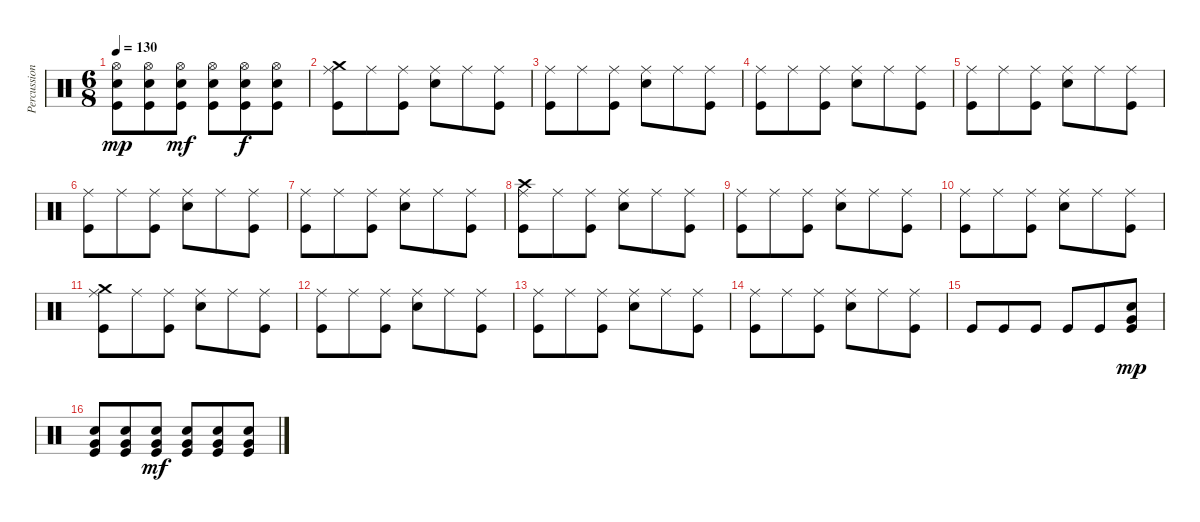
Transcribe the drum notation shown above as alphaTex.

\track ("Percussion" "Percussion") {instrument percussion}
\staff {score}
\articulation defaults
\ts (6 8)
\tempo 130
\clef neutral
\ks c
("Hi-Hat (open)" "Snare (hit) 2" "Kick (hit)").8{dy mp} ("Hi-Hat (open)" "Snare (hit) 2" "Kick (hit)").8 ("Hi-Hat (open)" "Snare (hit) 2" "Kick (hit)").8{dy mf} ("Hi-Hat (open)" "Snare (hit) 2" "Kick (hit)").8 ("Hi-Hat (open)" "Snare (hit) 2" "Kick (hit)").8{dy f} ("Hi-Hat (open)" "Snare (hit) 2" "Kick (hit)").8 |
("Crash medium (hit)" "Ride (middle)" "Kick (hit)").8 "Ride (middle)".8 ("Ride (middle)" "Kick (hit)").8 ("Ride (middle)" "Snare (hit) 2").8 "Ride (middle)".8 ("Ride (middle)" "Kick (hit)").8 |
("Ride (middle)" "Kick (hit)").8 "Ride (middle)".8 ("Ride (middle)" "Kick (hit)").8 ("Ride (middle)" "Snare (hit) 2").8 "Ride (middle)".8 ("Ride (middle)" "Kick (hit)").8 |
("Ride (middle)" "Kick (hit)").8 "Ride (middle)".8 ("Ride (middle)" "Kick (hit)").8 ("Ride (middle)" "Snare (hit) 2").8 "Ride (middle)".8 ("Ride (middle)" "Kick (hit)").8 |
("Ride (middle)" "Kick (hit)").8 "Ride (middle)".8 ("Ride (middle)" "Kick (hit)").8 ("Ride (middle)" "Snare (hit) 2").8 "Ride (middle)".8 ("Ride (middle)" "Kick (hit)").8 |
("Ride (middle)" "Kick (hit)").8 "Ride (middle)".8 ("Ride (middle)" "Kick (hit)").8 ("Ride (middle)" "Snare (hit) 2").8 "Ride (middle)".8 ("Ride (middle)" "Kick (hit)").8 |
("Ride (middle)" "Kick (hit)").8 "Ride (middle)".8 ("Ride (middle)" "Kick (hit)").8 ("Ride (middle)" "Snare (hit) 2").8 "Ride (middle)".8 ("Ride (middle)" "Kick (hit)").8 |
("Crash high (hit)" "Ride (middle)" "Kick (hit)").8 "Ride (middle)".8 ("Ride (middle)" "Kick (hit)").8 ("Ride (middle)" "Snare (hit) 2").8 "Ride (middle)".8 ("Ride (middle)" "Kick (hit)").8 |
("Ride (middle)" "Kick (hit)").8 "Ride (middle)".8 ("Ride (middle)" "Kick (hit)").8 ("Ride (middle)" "Snare (hit) 2").8 "Ride (middle)".8 ("Ride (middle)" "Kick (hit)").8 |
("Ride (middle)" "Kick (hit)").8 "Ride (middle)".8 ("Ride (middle)" "Kick (hit)").8 ("Ride (middle)" "Snare (hit) 2").8 "Ride (middle)".8 ("Ride (middle)" "Kick (hit)").8 |
("Crash medium (hit)" "Ride (middle)" "Kick (hit)").8 "Ride (middle)".8 ("Ride (middle)" "Kick (hit)").8 ("Ride (middle)" "Snare (hit) 2").8 "Ride (middle)".8 ("Ride (middle)" "Kick (hit)").8 |
("Ride (middle)" "Kick (hit)").8 "Ride (middle)".8 ("Ride (middle)" "Kick (hit)").8 ("Ride (middle)" "Snare (hit) 2").8 "Ride (middle)".8 ("Ride (middle)" "Kick (hit)").8 |
("Ride (middle)" "Kick (hit)").8 "Ride (middle)".8 ("Ride (middle)" "Kick (hit)").8 ("Ride (middle)" "Snare (hit) 2").8 "Ride (middle)".8 ("Ride (middle)" "Kick (hit)").8 |
("Ride (middle)" "Kick (hit)").8 "Ride (middle)".8 ("Ride (middle)" "Kick (hit)").8 ("Ride (middle)" "Snare (hit) 2").8 "Ride (middle)".8 ("Ride (middle)" "Kick (hit)").8 |
"Kick (hit)".8 "Kick (hit)".8 "Kick (hit)".8 "Kick (hit)".8 "Kick (hit)".8 ("Very Low Tom (hit)" "Snare (hit) 2" "Kick (hit)").8{dy mp} |
("Very Low Tom (hit)" "Snare (hit) 2" "Kick (hit)").8 ("Very Low Tom (hit)" "Snare (hit) 2" "Kick (hit)").8 ("Very Low Tom (hit)" "Snare (hit) 2" "Kick (hit)").8{dy mf} ("Very Low Tom (hit)" "Snare (hit) 2" "Kick (hit)").8 ("Very Low Tom (hit)" "Snare (hit) 2" "Kick (hit)").8 ("Very Low Tom (hit)" "Snare (hit) 2" "Kick (hit)").8
